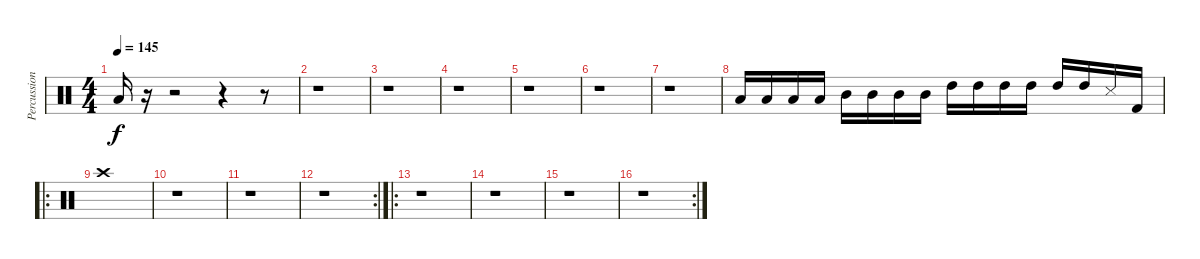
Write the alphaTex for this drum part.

\track ("Percussioni" "Percussion") {instrument percussion}
\staff {score}
\articulation defaults
\ts (4 4)
\tempo 145
\clef neutral
\ks c "Low Tom (hit)".16{dy f}
r.16 r.2 r.4 r.8 |
r.1 |
r.1 |
r.1 |
r.1 |
r.1 |
r.1 |
"Low Tom (hit)".16 "Low Tom (hit)".16 "Low Tom (hit)".16 "Low Tom (hit)".16 "Mid Tom (hit)".16 "Mid Tom (hit)".16 "Mid Tom (hit)".16 "Mid Tom (hit)".16 "High Tom (hit)".16 "High Tom (hit)".16 "High Tom (hit)".16 "High Tom (hit)".16 "High Tom (hit)".16 "High Tom (hit)".16 "Metronome (hit)".16 "Kick (hit) 2".16 |
\ro "Crash high (hit)".1
|
r.1 |
r.1 |
\rc 2
r.1 |
\ro
r.1 |
r.1 |
r.1 |
\rc 2
r.1
